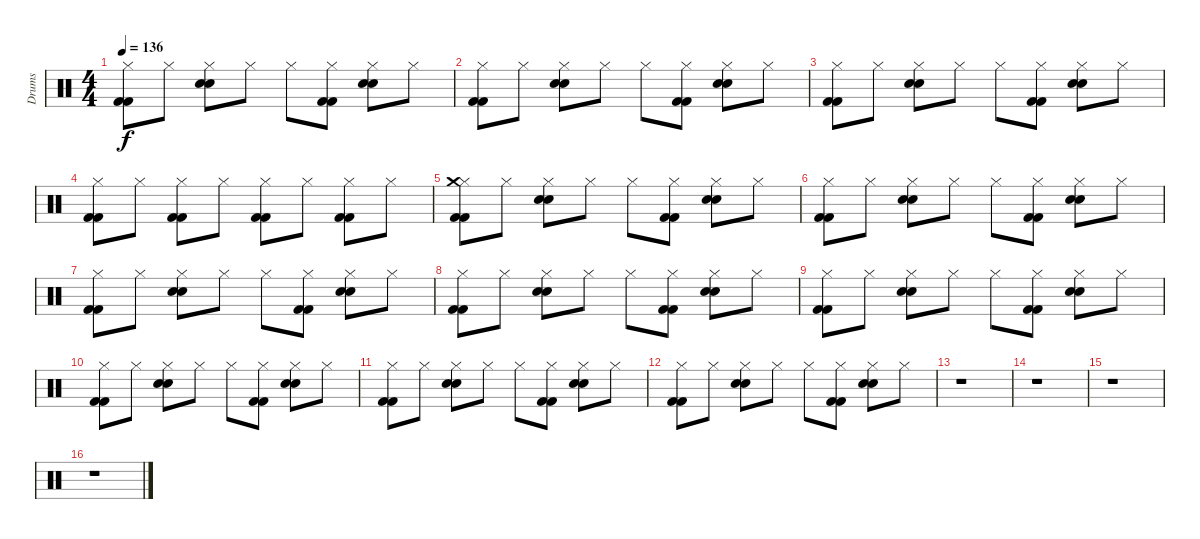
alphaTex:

\track ("Drums" "Drums") {instrument percussion}
\staff {score}
\articulation defaults
\ts (4 4)
\tempo 136
\clef neutral
\ks c
("Kick (hit) 2" "Kick (hit) 2" "Hi-Hat (closed)").8{dy f} "Hi-Hat (closed)".8 ("Electric Snare (hit)" "Electric Snare (hit)" "Hi-Hat (closed)").8 "Hi-Hat (closed)".8 "Hi-Hat (closed)".8 ("Kick (hit) 2" "Kick (hit) 2" "Hi-Hat (closed)").8 ("Electric Snare (hit)" "Electric Snare (hit)" "Hi-Hat (closed)").8 "Hi-Hat (closed)".8 |
("Kick (hit) 2" "Kick (hit) 2" "Hi-Hat (closed)").8 "Hi-Hat (closed)".8 ("Electric Snare (hit)" "Electric Snare (hit)" "Hi-Hat (closed)").8 "Hi-Hat (closed)".8 "Hi-Hat (closed)".8 ("Kick (hit) 2" "Kick (hit) 2" "Hi-Hat (closed)").8 ("Electric Snare (hit)" "Electric Snare (hit)" "Hi-Hat (closed)").8 "Hi-Hat (closed)".8 |
("Kick (hit) 2" "Kick (hit) 2" "Hi-Hat (closed)").8 "Hi-Hat (closed)".8 ("Electric Snare (hit)" "Electric Snare (hit)" "Hi-Hat (closed)").8 "Hi-Hat (closed)".8 "Hi-Hat (closed)".8 ("Kick (hit) 2" "Kick (hit) 2" "Hi-Hat (closed)").8 ("Electric Snare (hit)" "Electric Snare (hit)" "Hi-Hat (closed)").8 "Hi-Hat (closed)".8 |
("Kick (hit) 2" "Kick (hit) 2" "Hi-Hat (closed)").8 "Hi-Hat (closed)".8 ("Kick (hit) 2" "Kick (hit) 2" "Hi-Hat (closed)").8 "Hi-Hat (closed)".8 ("Kick (hit) 2" "Kick (hit) 2" "Hi-Hat (closed)").8 "Hi-Hat (closed)".8 ("Kick (hit) 2" "Kick (hit) 2" "Hi-Hat (closed)").8 "Hi-Hat (closed)".8 |
("Kick (hit) 2" "Kick (hit) 2" "Hi-Hat (closed)" "Crash medium (hit)").8 "Hi-Hat (closed)".8 ("Electric Snare (hit)" "Electric Snare (hit)" "Hi-Hat (closed)").8 "Hi-Hat (closed)".8 "Hi-Hat (closed)".8 ("Kick (hit) 2" "Kick (hit) 2" "Hi-Hat (closed)").8 ("Electric Snare (hit)" "Electric Snare (hit)" "Hi-Hat (closed)").8 "Hi-Hat (closed)".8 |
("Kick (hit) 2" "Kick (hit) 2" "Hi-Hat (closed)").8 "Hi-Hat (closed)".8 ("Electric Snare (hit)" "Electric Snare (hit)" "Hi-Hat (closed)").8 "Hi-Hat (closed)".8 "Hi-Hat (closed)".8 ("Kick (hit) 2" "Kick (hit) 2" "Hi-Hat (closed)").8 ("Electric Snare (hit)" "Electric Snare (hit)" "Hi-Hat (closed)").8 "Hi-Hat (closed)".8 |
("Kick (hit) 2" "Kick (hit) 2" "Hi-Hat (closed)").8 "Hi-Hat (closed)".8 ("Electric Snare (hit)" "Electric Snare (hit)" "Hi-Hat (closed)").8 "Hi-Hat (closed)".8 "Hi-Hat (closed)".8 ("Kick (hit) 2" "Kick (hit) 2" "Hi-Hat (closed)").8 ("Electric Snare (hit)" "Electric Snare (hit)" "Hi-Hat (closed)").8 "Hi-Hat (closed)".8 |
("Kick (hit) 2" "Kick (hit) 2" "Hi-Hat (closed)").8 "Hi-Hat (closed)".8 ("Electric Snare (hit)" "Electric Snare (hit)" "Hi-Hat (closed)").8 "Hi-Hat (closed)".8 "Hi-Hat (closed)".8 ("Kick (hit) 2" "Kick (hit) 2" "Hi-Hat (closed)").8 ("Electric Snare (hit)" "Electric Snare (hit)" "Hi-Hat (closed)").8 "Hi-Hat (closed)".8 |
("Kick (hit) 2" "Kick (hit) 2" "Hi-Hat (closed)").8 "Hi-Hat (closed)".8 ("Electric Snare (hit)" "Electric Snare (hit)" "Hi-Hat (closed)").8 "Hi-Hat (closed)".8 "Hi-Hat (closed)".8 ("Kick (hit) 2" "Kick (hit) 2" "Hi-Hat (closed)").8 ("Electric Snare (hit)" "Electric Snare (hit)" "Hi-Hat (closed)").8 "Hi-Hat (closed)".8 |
("Kick (hit) 2" "Kick (hit) 2" "Hi-Hat (closed)").8 "Hi-Hat (closed)".8 ("Electric Snare (hit)" "Electric Snare (hit)" "Hi-Hat (closed)").8 "Hi-Hat (closed)".8 "Hi-Hat (closed)".8 ("Kick (hit) 2" "Kick (hit) 2" "Hi-Hat (closed)").8 ("Electric Snare (hit)" "Electric Snare (hit)" "Hi-Hat (closed)").8 "Hi-Hat (closed)".8 |
("Kick (hit) 2" "Kick (hit) 2" "Hi-Hat (closed)").8 "Hi-Hat (closed)".8 ("Electric Snare (hit)" "Electric Snare (hit)" "Hi-Hat (closed)").8 "Hi-Hat (closed)".8 "Hi-Hat (closed)".8 ("Kick (hit) 2" "Kick (hit) 2" "Hi-Hat (closed)").8 ("Electric Snare (hit)" "Electric Snare (hit)" "Hi-Hat (closed)").8 "Hi-Hat (closed)".8 |
("Kick (hit) 2" "Kick (hit) 2" "Hi-Hat (closed)").8 "Hi-Hat (closed)".8 ("Electric Snare (hit)" "Electric Snare (hit)" "Hi-Hat (closed)").8 "Hi-Hat (closed)".8 "Hi-Hat (closed)".8 ("Kick (hit) 2" "Kick (hit) 2" "Hi-Hat (closed)").8 ("Electric Snare (hit)" "Electric Snare (hit)" "Hi-Hat (closed)").8 "Hi-Hat (closed)".8 |
r.1 |
r.1 |
r.1 |
r.1
